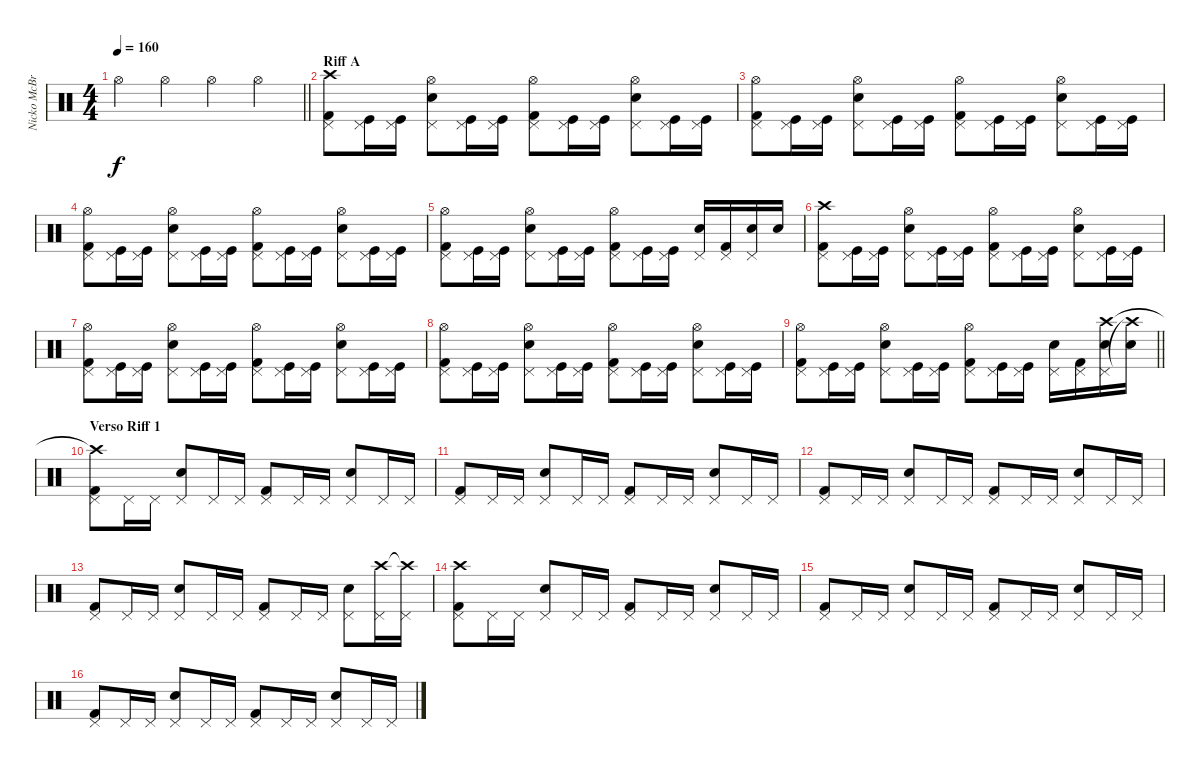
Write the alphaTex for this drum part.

\track ("Nicko McBrain" "Nicko McBr") {instrument percussion}
\staff {score}
\articulation defaults
\ts (4 4)
\tempo 160
\clef neutral
\barLineRight lightlight
\ks c "Hi-Hat (open)".4{dy f} "Hi-Hat (open)".4 "Hi-Hat (open)".4 "Hi-Hat (open)".4
|
\section ("" "Riff A")
("Kick (hit) 2" "Pedal Hi-Hat (hit)" "Crash high (hit)").8 ("Kick (hit)" "Pedal Hi-Hat (hit)").16 ("Kick (hit)" "Pedal Hi-Hat (hit)").16 ("Snare (hit) 2" "Pedal Hi-Hat (hit)" "Hi-Hat (open)").8 ("Kick (hit)" "Pedal Hi-Hat (hit)").16 ("Kick (hit)" "Pedal Hi-Hat (hit)").16 ("Kick (hit) 2" "Pedal Hi-Hat (hit)" "Hi-Hat (open)").8 ("Kick (hit)" "Pedal Hi-Hat (hit)").16 ("Kick (hit)" "Pedal Hi-Hat (hit)").16 ("Snare (hit) 2" "Pedal Hi-Hat (hit)" "Hi-Hat (open)").8 ("Kick (hit)" "Pedal Hi-Hat (hit)").16 ("Kick (hit)" "Pedal Hi-Hat (hit)").16 |
("Kick (hit) 2" "Pedal Hi-Hat (hit)" "Hi-Hat (open)").8 ("Kick (hit)" "Pedal Hi-Hat (hit)").16 ("Kick (hit)" "Pedal Hi-Hat (hit)").16 ("Snare (hit) 2" "Pedal Hi-Hat (hit)" "Hi-Hat (open)").8 ("Kick (hit)" "Pedal Hi-Hat (hit)").16 ("Kick (hit)" "Pedal Hi-Hat (hit)").16 ("Kick (hit) 2" "Pedal Hi-Hat (hit)" "Hi-Hat (open)").8 ("Kick (hit)" "Pedal Hi-Hat (hit)").16 ("Kick (hit)" "Pedal Hi-Hat (hit)").16 ("Snare (hit) 2" "Pedal Hi-Hat (hit)" "Hi-Hat (open)").8 ("Kick (hit)" "Pedal Hi-Hat (hit)").16 ("Kick (hit)" "Pedal Hi-Hat (hit)").16 |
("Kick (hit) 2" "Pedal Hi-Hat (hit)" "Hi-Hat (open)").8 ("Kick (hit)" "Pedal Hi-Hat (hit)").16 ("Kick (hit)" "Pedal Hi-Hat (hit)").16 ("Snare (hit) 2" "Pedal Hi-Hat (hit)" "Hi-Hat (open)").8 ("Kick (hit)" "Pedal Hi-Hat (hit)").16 ("Kick (hit)" "Pedal Hi-Hat (hit)").16 ("Kick (hit) 2" "Pedal Hi-Hat (hit)" "Hi-Hat (open)").8 ("Kick (hit)" "Pedal Hi-Hat (hit)").16 ("Kick (hit)" "Pedal Hi-Hat (hit)").16 ("Snare (hit) 2" "Pedal Hi-Hat (hit)" "Hi-Hat (open)").8 ("Kick (hit)" "Pedal Hi-Hat (hit)").16 ("Kick (hit)" "Pedal Hi-Hat (hit)").16 |
("Kick (hit) 2" "Pedal Hi-Hat (hit)" "Hi-Hat (open)").8 ("Kick (hit)" "Pedal Hi-Hat (hit)").16 ("Kick (hit)" "Pedal Hi-Hat (hit)").16 ("Snare (hit) 2" "Pedal Hi-Hat (hit)" "Hi-Hat (open)").8 ("Kick (hit)" "Pedal Hi-Hat (hit)").16 ("Kick (hit)" "Pedal Hi-Hat (hit)").16 ("Kick (hit) 2" "Pedal Hi-Hat (hit)" "Hi-Hat (open)").8 ("Kick (hit)" "Pedal Hi-Hat (hit)").16 ("Kick (hit)" "Pedal Hi-Hat (hit)").16 ("Snare (hit) 2" "Pedal Hi-Hat (hit)").16 ("Kick (hit) 2" "Pedal Hi-Hat (hit)").16 ("Snare (hit) 2" "Pedal Hi-Hat (hit)").16 "Snare (hit) 2".16 |
("Kick (hit) 2" "Pedal Hi-Hat (hit)" "Crash high (hit)").8 ("Kick (hit)" "Pedal Hi-Hat (hit)").16 ("Kick (hit)" "Pedal Hi-Hat (hit)").16 ("Snare (hit) 2" "Pedal Hi-Hat (hit)" "Hi-Hat (open)").8 ("Kick (hit)" "Pedal Hi-Hat (hit)").16 ("Kick (hit)" "Pedal Hi-Hat (hit)").16 ("Kick (hit) 2" "Pedal Hi-Hat (hit)" "Hi-Hat (open)").8 ("Kick (hit)" "Pedal Hi-Hat (hit)").16 ("Kick (hit)" "Pedal Hi-Hat (hit)").16 ("Snare (hit) 2" "Pedal Hi-Hat (hit)" "Hi-Hat (open)").8 ("Kick (hit)" "Pedal Hi-Hat (hit)").16 ("Kick (hit)" "Pedal Hi-Hat (hit)").16 |
("Kick (hit) 2" "Pedal Hi-Hat (hit)" "Hi-Hat (open)").8 ("Kick (hit)" "Pedal Hi-Hat (hit)").16 ("Kick (hit)" "Pedal Hi-Hat (hit)").16 ("Snare (hit) 2" "Pedal Hi-Hat (hit)" "Hi-Hat (open)").8 ("Kick (hit)" "Pedal Hi-Hat (hit)").16 ("Kick (hit)" "Pedal Hi-Hat (hit)").16 ("Kick (hit) 2" "Pedal Hi-Hat (hit)" "Hi-Hat (open)").8 ("Kick (hit)" "Pedal Hi-Hat (hit)").16 ("Kick (hit)" "Pedal Hi-Hat (hit)").16 ("Snare (hit) 2" "Pedal Hi-Hat (hit)" "Hi-Hat (open)").8 ("Kick (hit)" "Pedal Hi-Hat (hit)").16 ("Kick (hit)" "Pedal Hi-Hat (hit)").16 |
("Kick (hit) 2" "Pedal Hi-Hat (hit)" "Hi-Hat (open)").8 ("Kick (hit)" "Pedal Hi-Hat (hit)").16 ("Kick (hit)" "Pedal Hi-Hat (hit)").16 ("Snare (hit) 2" "Pedal Hi-Hat (hit)" "Hi-Hat (open)").8 ("Kick (hit)" "Pedal Hi-Hat (hit)").16 ("Kick (hit)" "Pedal Hi-Hat (hit)").16 ("Kick (hit) 2" "Pedal Hi-Hat (hit)" "Hi-Hat (open)").8 ("Kick (hit)" "Pedal Hi-Hat (hit)").16 ("Kick (hit)" "Pedal Hi-Hat (hit)").16 ("Snare (hit) 2" "Pedal Hi-Hat (hit)" "Hi-Hat (open)").8 ("Kick (hit)" "Pedal Hi-Hat (hit)").16 ("Kick (hit)" "Pedal Hi-Hat (hit)").16 |
\barLineRight lightlight
("Kick (hit) 2" "Pedal Hi-Hat (hit)" "Hi-Hat (open)").8 ("Kick (hit)" "Pedal Hi-Hat (hit)").16 ("Kick (hit)" "Pedal Hi-Hat (hit)").16 ("Snare (hit) 2" "Pedal Hi-Hat (hit)" "Hi-Hat (open)").8 ("Kick (hit)" "Pedal Hi-Hat (hit)").16 ("Kick (hit)" "Pedal Hi-Hat (hit)").16 ("Kick (hit) 2" "Pedal Hi-Hat (hit)" "Hi-Hat (open)").8 ("Kick (hit)" "Pedal Hi-Hat (hit)").16 ("Kick (hit)" "Pedal Hi-Hat (hit)").16 ("Snare (hit) 2" "Pedal Hi-Hat (hit)").16 ("Kick (hit) 2" "Pedal Hi-Hat (hit)").16 ("Snare (hit) 2" "Pedal Hi-Hat (hit)" "Crash high (hit)").16 ("Snare (hit) 2" "Crash high (hit)"{t}).16 |
\section ("" "Verso Riff 1")
("Kick (hit) 2" "Pedal Hi-Hat (hit)" "Crash high (hit)"{t}).8 "Pedal Hi-Hat (hit)".16 "Pedal Hi-Hat (hit)".16 ("Snare (hit) 2" "Pedal Hi-Hat (hit)").8 "Pedal Hi-Hat (hit)".16 "Pedal Hi-Hat (hit)".16 ("Kick (hit) 2" "Pedal Hi-Hat (hit)").8 "Pedal Hi-Hat (hit)".16 "Pedal Hi-Hat (hit)".16 ("Snare (hit) 2" "Pedal Hi-Hat (hit)").8 "Pedal Hi-Hat (hit)".16 "Pedal Hi-Hat (hit)".16 |
("Kick (hit) 2" "Pedal Hi-Hat (hit)").8 "Pedal Hi-Hat (hit)".16 "Pedal Hi-Hat (hit)".16 ("Snare (hit) 2" "Pedal Hi-Hat (hit)").8 "Pedal Hi-Hat (hit)".16 "Pedal Hi-Hat (hit)".16 ("Kick (hit) 2" "Pedal Hi-Hat (hit)").8 "Pedal Hi-Hat (hit)".16 "Pedal Hi-Hat (hit)".16 ("Snare (hit) 2" "Pedal Hi-Hat (hit)").8 "Pedal Hi-Hat (hit)".16 "Pedal Hi-Hat (hit)".16 |
("Kick (hit) 2" "Pedal Hi-Hat (hit)").8 "Pedal Hi-Hat (hit)".16 "Pedal Hi-Hat (hit)".16 ("Snare (hit) 2" "Pedal Hi-Hat (hit)").8 "Pedal Hi-Hat (hit)".16 "Pedal Hi-Hat (hit)".16 ("Kick (hit) 2" "Pedal Hi-Hat (hit)").8 "Pedal Hi-Hat (hit)".16 "Pedal Hi-Hat (hit)".16 ("Snare (hit) 2" "Pedal Hi-Hat (hit)").8 "Pedal Hi-Hat (hit)".16 "Pedal Hi-Hat (hit)".16 |
("Kick (hit) 2" "Pedal Hi-Hat (hit)").8 "Pedal Hi-Hat (hit)".16 "Pedal Hi-Hat (hit)".16 ("Snare (hit) 2" "Pedal Hi-Hat (hit)").8 "Pedal Hi-Hat (hit)".16 "Pedal Hi-Hat (hit)".16 ("Kick (hit) 2" "Pedal Hi-Hat (hit)").8 "Pedal Hi-Hat (hit)".16 "Pedal Hi-Hat (hit)".16 ("Snare (hit) 2" "Pedal Hi-Hat (hit)").8 ("Pedal Hi-Hat (hit)" "Crash high (hit)").16 ("Pedal Hi-Hat (hit)" "Crash high (hit)"{t}).16 |
("Kick (hit) 2" "Pedal Hi-Hat (hit)" "Crash high (hit)").8 "Pedal Hi-Hat (hit)".16 "Pedal Hi-Hat (hit)".16 ("Snare (hit) 2" "Pedal Hi-Hat (hit)").8 "Pedal Hi-Hat (hit)".16 "Pedal Hi-Hat (hit)".16 ("Kick (hit) 2" "Pedal Hi-Hat (hit)").8 "Pedal Hi-Hat (hit)".16 "Pedal Hi-Hat (hit)".16 ("Snare (hit) 2" "Pedal Hi-Hat (hit)").8 "Pedal Hi-Hat (hit)".16 "Pedal Hi-Hat (hit)".16 |
("Kick (hit) 2" "Pedal Hi-Hat (hit)").8 "Pedal Hi-Hat (hit)".16 "Pedal Hi-Hat (hit)".16 ("Snare (hit) 2" "Pedal Hi-Hat (hit)").8 "Pedal Hi-Hat (hit)".16 "Pedal Hi-Hat (hit)".16 ("Kick (hit) 2" "Pedal Hi-Hat (hit)").8 "Pedal Hi-Hat (hit)".16 "Pedal Hi-Hat (hit)".16 ("Snare (hit) 2" "Pedal Hi-Hat (hit)").8 "Pedal Hi-Hat (hit)".16 "Pedal Hi-Hat (hit)".16 |
("Kick (hit) 2" "Pedal Hi-Hat (hit)").8 "Pedal Hi-Hat (hit)".16 "Pedal Hi-Hat (hit)".16 ("Snare (hit) 2" "Pedal Hi-Hat (hit)").8 "Pedal Hi-Hat (hit)".16 "Pedal Hi-Hat (hit)".16 ("Kick (hit) 2" "Pedal Hi-Hat (hit)").8 "Pedal Hi-Hat (hit)".16 "Pedal Hi-Hat (hit)".16 ("Snare (hit) 2" "Pedal Hi-Hat (hit)").8 "Pedal Hi-Hat (hit)".16 "Pedal Hi-Hat (hit)".16
